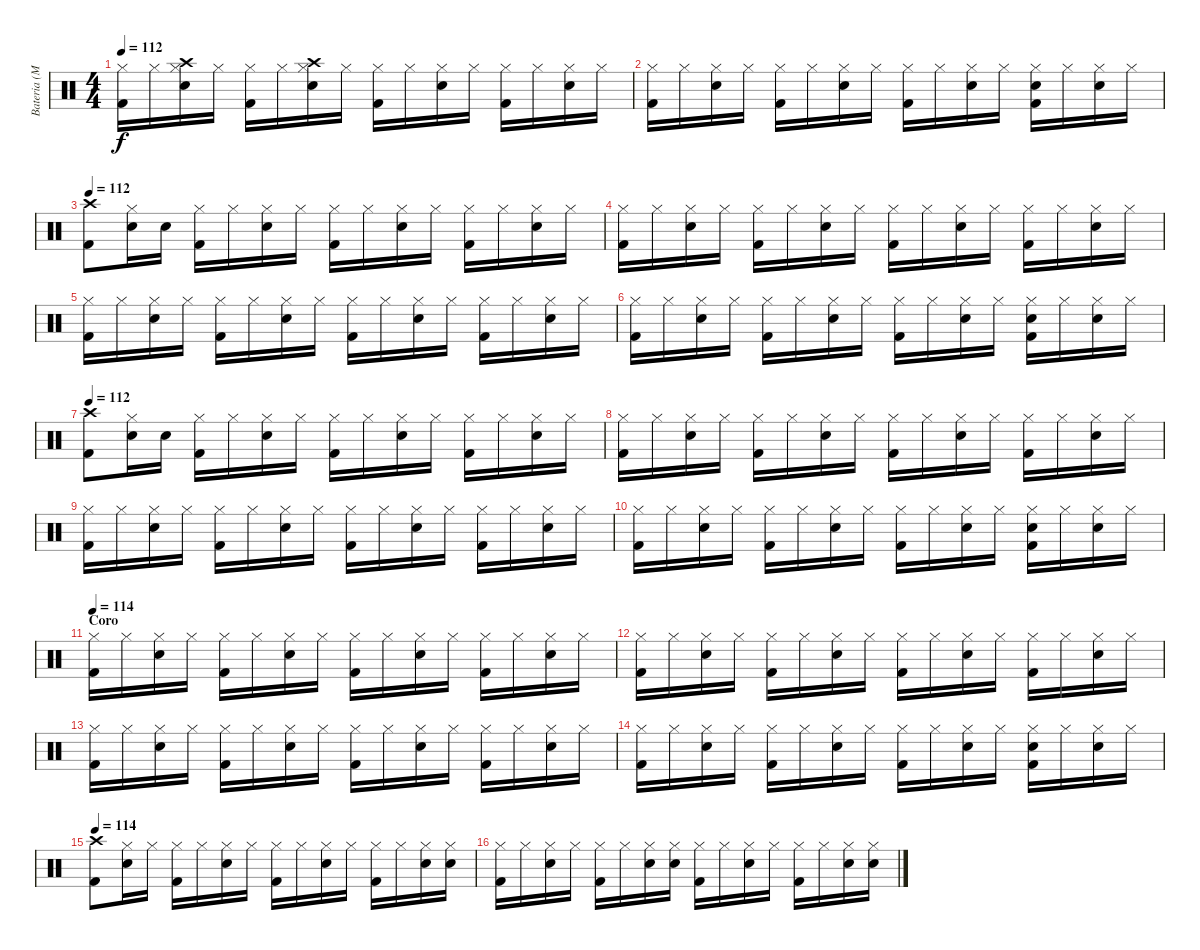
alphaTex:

\track ("Bateria (Marcelo)" "Bateria (M") {instrument percussion}
\staff {score}
\articulation defaults
\ts (4 4)
\tempo 112
\clef neutral
\ks c
("Kick (hit) 2" "Hi-Hat (closed)").16{dy f} "Hi-Hat (closed)".16 ("Snare (hit) 2" "Hi-Hat (closed)" "Crash high (hit)").16 "Hi-Hat (closed)".16 ("Kick (hit) 2" "Hi-Hat (closed)").16 "Hi-Hat (closed)".16 ("Snare (hit) 2" "Hi-Hat (closed)" "Crash high (hit)").16 "Hi-Hat (closed)".16 ("Kick (hit) 2" "Hi-Hat (closed)").16 "Hi-Hat (closed)".16 ("Snare (hit) 2" "Hi-Hat (closed)").16 "Hi-Hat (closed)".16 ("Kick (hit) 2" "Hi-Hat (closed)").16 "Hi-Hat (closed)".16 ("Snare (hit) 2" "Hi-Hat (closed)").16 "Hi-Hat (closed)".16 |
("Kick (hit) 2" "Hi-Hat (closed)").16 "Hi-Hat (closed)".16 ("Snare (hit) 2" "Hi-Hat (closed)").16 "Hi-Hat (closed)".16 ("Kick (hit) 2" "Hi-Hat (closed)").16 "Hi-Hat (closed)".16 ("Snare (hit) 2" "Hi-Hat (closed)").16 "Hi-Hat (closed)".16 ("Kick (hit) 2" "Hi-Hat (closed)").16 "Hi-Hat (closed)".16 ("Snare (hit) 2" "Hi-Hat (closed)").16 "Hi-Hat (closed)".16 ("Kick (hit) 2" "Hi-Hat (closed)" "Snare (hit) 2").16 "Hi-Hat (closed)".16 ("Snare (hit) 2" "Hi-Hat (closed)").16 "Hi-Hat (closed)".16 |
\tempo 112
("Kick (hit) 2" "Crash high (hit)").8{volume 13} ("Snare (hit) 2" "Hi-Hat (closed)").16 "Snare (hit)".16 ("Kick (hit) 2" "Hi-Hat (closed)").16 "Hi-Hat (closed)".16 ("Snare (hit) 2" "Hi-Hat (closed)").16 "Hi-Hat (closed)".16 ("Kick (hit) 2" "Hi-Hat (closed)").16 "Hi-Hat (closed)".16 ("Snare (hit) 2" "Hi-Hat (closed)").16 "Hi-Hat (closed)".16 ("Kick (hit) 2" "Hi-Hat (closed)").16 "Hi-Hat (closed)".16 ("Snare (hit) 2" "Hi-Hat (closed)").16 "Hi-Hat (closed)".16 |
("Kick (hit) 2" "Hi-Hat (closed)").16 "Hi-Hat (closed)".16 ("Snare (hit) 2" "Hi-Hat (closed)").16 "Hi-Hat (closed)".16 ("Kick (hit) 2" "Hi-Hat (closed)").16 "Hi-Hat (closed)".16 ("Snare (hit) 2" "Hi-Hat (closed)").16 "Hi-Hat (closed)".16 ("Kick (hit) 2" "Hi-Hat (closed)").16 "Hi-Hat (closed)".16 ("Snare (hit) 2" "Hi-Hat (closed)").16 "Hi-Hat (closed)".16 ("Kick (hit) 2" "Hi-Hat (closed)").16 "Hi-Hat (closed)".16 ("Snare (hit) 2" "Hi-Hat (closed)").16 "Hi-Hat (closed)".16 |
("Kick (hit) 2" "Hi-Hat (closed)").16 "Hi-Hat (closed)".16 ("Snare (hit) 2" "Hi-Hat (closed)").16 "Hi-Hat (closed)".16 ("Kick (hit) 2" "Hi-Hat (closed)").16 "Hi-Hat (closed)".16 ("Snare (hit) 2" "Hi-Hat (closed)").16 "Hi-Hat (closed)".16 ("Kick (hit) 2" "Hi-Hat (closed)").16 "Hi-Hat (closed)".16 ("Snare (hit) 2" "Hi-Hat (closed)").16 "Hi-Hat (closed)".16 ("Kick (hit) 2" "Hi-Hat (closed)").16 "Hi-Hat (closed)".16 ("Snare (hit) 2" "Hi-Hat (closed)").16 "Hi-Hat (closed)".16 |
("Kick (hit) 2" "Hi-Hat (closed)").16 "Hi-Hat (closed)".16 ("Snare (hit) 2" "Hi-Hat (closed)").16 "Hi-Hat (closed)".16 ("Kick (hit) 2" "Hi-Hat (closed)").16 "Hi-Hat (closed)".16 ("Snare (hit) 2" "Hi-Hat (closed)").16 "Hi-Hat (closed)".16 ("Kick (hit) 2" "Hi-Hat (closed)").16 "Hi-Hat (closed)".16 ("Snare (hit) 2" "Hi-Hat (closed)").16 "Hi-Hat (closed)".16 ("Kick (hit) 2" "Hi-Hat (closed)" "Snare (hit) 2").16 "Hi-Hat (closed)".16 ("Snare (hit) 2" "Hi-Hat (closed)").16 "Hi-Hat (closed)".16 |
\tempo 112
("Kick (hit) 2" "Crash high (hit)").8{volume 13} ("Snare (hit) 2" "Hi-Hat (closed)").16 "Snare (hit)".16 ("Kick (hit) 2" "Hi-Hat (closed)").16 "Hi-Hat (closed)".16 ("Snare (hit) 2" "Hi-Hat (closed)").16 "Hi-Hat (closed)".16 ("Kick (hit) 2" "Hi-Hat (closed)").16 "Hi-Hat (closed)".16 ("Snare (hit) 2" "Hi-Hat (closed)").16 "Hi-Hat (closed)".16 ("Kick (hit) 2" "Hi-Hat (closed)").16 "Hi-Hat (closed)".16 ("Snare (hit) 2" "Hi-Hat (closed)").16 "Hi-Hat (closed)".16 |
("Kick (hit) 2" "Hi-Hat (closed)").16 "Hi-Hat (closed)".16 ("Snare (hit) 2" "Hi-Hat (closed)").16 "Hi-Hat (closed)".16 ("Kick (hit) 2" "Hi-Hat (closed)").16 "Hi-Hat (closed)".16 ("Snare (hit) 2" "Hi-Hat (closed)").16 "Hi-Hat (closed)".16 ("Kick (hit) 2" "Hi-Hat (closed)").16 "Hi-Hat (closed)".16 ("Snare (hit) 2" "Hi-Hat (closed)").16 "Hi-Hat (closed)".16 ("Kick (hit) 2" "Hi-Hat (closed)").16 "Hi-Hat (closed)".16 ("Snare (hit) 2" "Hi-Hat (closed)").16 "Hi-Hat (closed)".16 |
("Kick (hit) 2" "Hi-Hat (closed)").16 "Hi-Hat (closed)".16 ("Snare (hit) 2" "Hi-Hat (closed)").16 "Hi-Hat (closed)".16 ("Kick (hit) 2" "Hi-Hat (closed)").16 "Hi-Hat (closed)".16 ("Snare (hit) 2" "Hi-Hat (closed)").16 "Hi-Hat (closed)".16 ("Kick (hit) 2" "Hi-Hat (closed)").16 "Hi-Hat (closed)".16 ("Snare (hit) 2" "Hi-Hat (closed)").16 "Hi-Hat (closed)".16 ("Kick (hit) 2" "Hi-Hat (closed)").16 "Hi-Hat (closed)".16 ("Snare (hit) 2" "Hi-Hat (closed)").16 "Hi-Hat (closed)".16 |
("Kick (hit) 2" "Hi-Hat (closed)").16 "Hi-Hat (closed)".16 ("Snare (hit) 2" "Hi-Hat (closed)").16 "Hi-Hat (closed)".16 ("Kick (hit) 2" "Hi-Hat (closed)").16 "Hi-Hat (closed)".16 ("Snare (hit) 2" "Hi-Hat (closed)").16 "Hi-Hat (closed)".16 ("Kick (hit) 2" "Hi-Hat (closed)").16 "Hi-Hat (closed)".16 ("Snare (hit) 2" "Hi-Hat (closed)").16 "Hi-Hat (closed)".16 ("Kick (hit) 2" "Hi-Hat (closed)" "Snare (hit) 2").16 "Hi-Hat (closed)".16 ("Snare (hit) 2" "Hi-Hat (closed)").16 "Hi-Hat (closed)".16 |
\section ("" "Coro")
\tempo 114
("Kick (hit) 2" "Hi-Hat (closed)").16{volume 13} "Hi-Hat (closed)".16 ("Snare (hit) 2" "Hi-Hat (closed)").16 "Hi-Hat (closed)".16 ("Kick (hit) 2" "Hi-Hat (closed)").16 "Hi-Hat (closed)".16 ("Snare (hit) 2" "Hi-Hat (closed)").16 "Hi-Hat (closed)".16 ("Kick (hit) 2" "Hi-Hat (closed)").16 "Hi-Hat (closed)".16 ("Snare (hit) 2" "Hi-Hat (closed)").16 "Hi-Hat (closed)".16 ("Kick (hit) 2" "Hi-Hat (closed)").16 "Hi-Hat (closed)".16 ("Snare (hit) 2" "Hi-Hat (closed)").16 "Hi-Hat (closed)".16 |
("Kick (hit) 2" "Hi-Hat (closed)").16 "Hi-Hat (closed)".16 ("Snare (hit) 2" "Hi-Hat (closed)").16 "Hi-Hat (closed)".16 ("Kick (hit) 2" "Hi-Hat (closed)").16 "Hi-Hat (closed)".16 ("Snare (hit) 2" "Hi-Hat (closed)").16 "Hi-Hat (closed)".16 ("Kick (hit) 2" "Hi-Hat (closed)").16 "Hi-Hat (closed)".16 ("Snare (hit) 2" "Hi-Hat (closed)").16 "Hi-Hat (closed)".16 ("Kick (hit) 2" "Hi-Hat (closed)").16 "Hi-Hat (closed)".16 ("Snare (hit) 2" "Hi-Hat (closed)").16 "Hi-Hat (closed)".16 |
("Kick (hit) 2" "Hi-Hat (closed)").16 "Hi-Hat (closed)".16 ("Snare (hit) 2" "Hi-Hat (closed)").16 "Hi-Hat (closed)".16 ("Kick (hit) 2" "Hi-Hat (closed)").16 "Hi-Hat (closed)".16 ("Snare (hit) 2" "Hi-Hat (closed)").16 "Hi-Hat (closed)".16 ("Kick (hit) 2" "Hi-Hat (closed)").16 "Hi-Hat (closed)".16 ("Snare (hit) 2" "Hi-Hat (closed)").16 "Hi-Hat (closed)".16 ("Kick (hit) 2" "Hi-Hat (closed)").16 "Hi-Hat (closed)".16 ("Snare (hit) 2" "Hi-Hat (closed)").16 "Hi-Hat (closed)".16 |
("Kick (hit) 2" "Hi-Hat (closed)").16 "Hi-Hat (closed)".16 ("Snare (hit) 2" "Hi-Hat (closed)").16 "Hi-Hat (closed)".16 ("Kick (hit) 2" "Hi-Hat (closed)").16 "Hi-Hat (closed)".16 ("Snare (hit) 2" "Hi-Hat (closed)").16 "Hi-Hat (closed)".16 ("Kick (hit) 2" "Hi-Hat (closed)").16 "Hi-Hat (closed)".16 ("Snare (hit) 2" "Hi-Hat (closed)").16 "Hi-Hat (closed)".16 ("Kick (hit) 2" "Hi-Hat (closed)" "Snare (hit) 2").16 "Hi-Hat (closed)".16 ("Snare (hit) 2" "Hi-Hat (closed)").16 "Hi-Hat (closed)".16 |
\tempo 114
("Kick (hit) 2" "Crash high (hit)").8{volume 13} ("Snare (hit) 2" "Hi-Hat (closed)").16 "Hi-Hat (closed)".16 ("Kick (hit) 2" "Hi-Hat (closed)").16 "Hi-Hat (closed)".16 ("Snare (hit) 2" "Hi-Hat (closed)").16 "Hi-Hat (closed)".16 ("Kick (hit) 2" "Hi-Hat (closed)").16 "Hi-Hat (closed)".16 ("Snare (hit) 2" "Hi-Hat (closed)").16 "Hi-Hat (closed)".16 ("Kick (hit) 2" "Hi-Hat (closed)").16 "Hi-Hat (closed)".16 ("Snare (hit) 2" "Hi-Hat (closed)").16 ("Snare (hit) 2" "Hi-Hat (closed)").16 |
("Kick (hit) 2" "Hi-Hat (closed)").16 "Hi-Hat (closed)".16 ("Snare (hit) 2" "Hi-Hat (closed)").16 "Hi-Hat (closed)".16 ("Kick (hit) 2" "Hi-Hat (closed)").16 "Hi-Hat (closed)".16 ("Snare (hit) 2" "Hi-Hat (closed)").16 ("Snare (hit) 2" "Hi-Hat (closed)").16 ("Kick (hit) 2" "Hi-Hat (closed)").16 "Hi-Hat (closed)".16 ("Snare (hit) 2" "Hi-Hat (closed)").16 "Hi-Hat (closed)".16 ("Kick (hit) 2" "Hi-Hat (closed)").16 "Hi-Hat (closed)".16 ("Snare (hit) 2" "Hi-Hat (closed)").16 ("Snare (hit) 2" "Hi-Hat (closed)").16
